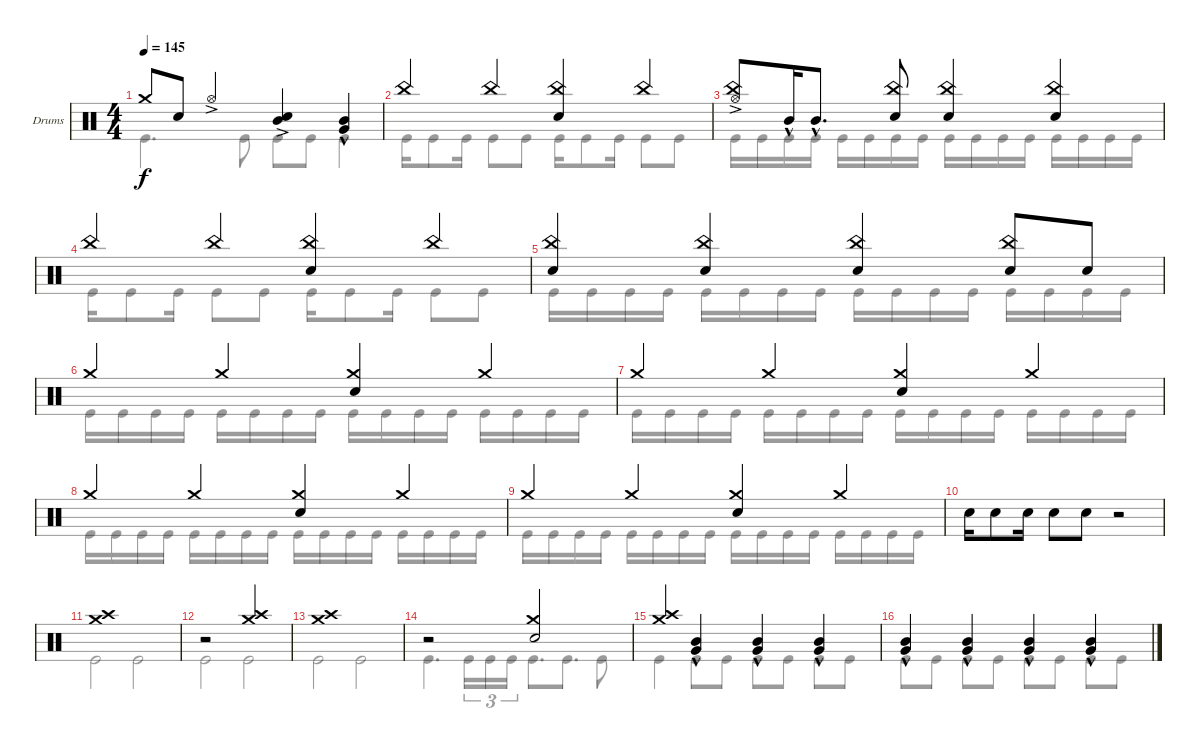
\defaultSystemsLayout 4
\bracketExtendMode groupsimilarinstruments
\firstSystemTrackNameOrientation horizontal
\otherSystemsTrackNameOrientation horizontal
\track ("Drumkit" "Drums") {instrument percussion}
\staff {score}
\articulation defaults
\voice
\ts (4 4)
\tempo 145
\clef neutral
\scale
1.02648
\ks c "Crash medium (hit)".8{dy f} "Snare (hit) 2".8 "Hi-Hat (open)"{ac}.4
("Snare (hit) 2" "Mid Tom (hit)"{ac}).4 ("Mid Tom (hit)"{hac} "Very Low Tom (hit)"{hac}).4 |
\scale
0.973518 "China (hit)".4 "China (hit)".4 ("China (hit)" "Snare (hit) 2").4 "China (hit)".4 |
\scale
1.02648 ("China (hit)" "Hi-Hat (open)"{ac}).8 "Mid Tom (hit)"{hac}.16 "Mid Tom (hit)"{hac}.8{d} ("Snare (hit) 2" "China (hit)").8 ("Snare (hit) 2" "China (hit)").4 ("China (hit)" "Snare (hit) 2").4 |
\scale
0.973518 "China (hit)".4 "China (hit)".4 ("China (hit)" "Snare (hit) 2").4 "China (hit)".4 |
\scale
1.02648 ("China (hit)" "Snare (hit) 2").4 ("China (hit)" "Snare (hit) 2").4 ("China (hit)" "Snare (hit) 2").4 ("China (hit)" "Snare (hit) 2").8 "Snare (hit) 2".8 |
\scale
0.973518 "Crash medium (hit)".4 "Crash medium (hit)".4 ("Crash medium (hit)" "Snare (hit) 2").4 "Crash medium (hit)".4 |
\scale
1.02648 "Crash medium (hit)".4 "Crash medium (hit)".4 ("Crash medium (hit)" "Snare (hit) 2").4 "Crash medium (hit)".4 |
\scale
0.973518 "Crash medium (hit)".4 "Crash medium (hit)".4 ("Crash medium (hit)" "Snare (hit) 2").4 "Crash medium (hit)".4 |
\scale
1.02648 "Crash medium (hit)".4 "Crash medium (hit)".4 ("Crash medium (hit)" "Snare (hit) 2").4 "Crash medium (hit)".4 |
\scale
0.973518 "Snare (hit) 2".16 "Snare (hit) 2".8 "Snare (hit) 2".16 "Snare (hit) 2".8 "Snare (hit) 2".8 r.2 |
\scale
1.02648 ("Crash medium (hit)" "Crash high (hit)").1 |
\scale
0.973518 r.2 ("Crash high (hit)" "Crash medium (hit)").2 |
\scale
1.02648 ("Crash medium (hit)" "Crash high (hit)").1 |
\scale
0.973518 r.2 ("Snare (hit) 2" "Crash medium (hit)").2 |
\scale
1.02648 ("Crash medium (hit)" "Crash high (hit)").4 ("Mid Tom (hit)"{hac} "Very Low Tom (hit)"{hac}).4 ("Very Low Tom (hit)"{hac} "Mid Tom (hit)"{hac}).4 ("Very Low Tom (hit)"{hac} "Mid Tom (hit)"{hac}).4 |
\scale
0.973518 ("Very Low Tom (hit)"{hac} "Mid Tom (hit)"{hac}).4 ("Mid Tom (hit)"{hac} "Very Low Tom (hit)"{hac}).4 ("Mid Tom (hit)"{hac} "Very Low Tom (hit)"{hac}).4 ("Mid Tom (hit)"{hac} "Very Low Tom (hit)"{hac}).4
\voice
\clef neutral
\ottava regular
\simile none
\scale
1.02648
\ks c "Kick (hit)".4{d dy f} "Kick (hit)".8 "Kick (hit)".8 "Kick (hit)".8 "Kick (hit)".4
|
\scale
0.973518 "Kick (hit)".16 "Kick (hit)".8 "Kick (hit)".16 "Kick (hit)".8 "Kick (hit)".8 "Kick (hit)".16 "Kick (hit)".8 "Kick (hit)".16 "Kick (hit)".8 "Kick (hit)".8 |
\scale
1.02648 "Kick (hit)".16 "Kick (hit)".16 "Kick (hit)".16 "Kick (hit)".16 "Kick (hit)".16 "Kick (hit)".16 "Kick (hit)".16 "Kick (hit)".16 "Kick (hit)".16 "Kick (hit)".16 "Kick (hit)".16 "Kick (hit)".16 "Kick (hit)".16 "Kick (hit)".16 "Kick (hit)".16 "Kick (hit)".16 |
\scale
0.973518 "Kick (hit)".16 "Kick (hit)".8 "Kick (hit)".16 "Kick (hit)".8 "Kick (hit)".8 "Kick (hit)".16 "Kick (hit)".8 "Kick (hit)".16 "Kick (hit)".8 "Kick (hit)".8 |
\scale
1.02648 "Kick (hit)".16 "Kick (hit)".16 "Kick (hit)".16 "Kick (hit)".16 "Kick (hit)".16 "Kick (hit)".16 "Kick (hit)".16 "Kick (hit)".16 "Kick (hit)".16 "Kick (hit)".16 "Kick (hit)".16 "Kick (hit)".16 "Kick (hit)".16 "Kick (hit)".16 "Kick (hit)".16 "Kick (hit)".16 |
\scale
0.973518 "Kick (hit)".16 "Kick (hit)".16 "Kick (hit)".16 "Kick (hit)".16 "Kick (hit)".16 "Kick (hit)".16 "Kick (hit)".16 "Kick (hit)".16 "Kick (hit)".16 "Kick (hit)".16 "Kick (hit)".16 "Kick (hit)".16 "Kick (hit)".16 "Kick (hit)".16 "Kick (hit)".16 "Kick (hit)".16 |
\scale
1.02648 "Kick (hit)".16 "Kick (hit)".16 "Kick (hit)".16 "Kick (hit)".16 "Kick (hit)".16 "Kick (hit)".16 "Kick (hit)".16 "Kick (hit)".16 "Kick (hit)".16 "Kick (hit)".16 "Kick (hit)".16 "Kick (hit)".16 "Kick (hit)".16 "Kick (hit)".16 "Kick (hit)".16 "Kick (hit)".16 |
\scale
0.973518 "Kick (hit)".16 "Kick (hit)".16 "Kick (hit)".16 "Kick (hit)".16 "Kick (hit)".16 "Kick (hit)".16 "Kick (hit)".16 "Kick (hit)".16 "Kick (hit)".16 "Kick (hit)".16 "Kick (hit)".16 "Kick (hit)".16 "Kick (hit)".16 "Kick (hit)".16 "Kick (hit)".16 "Kick (hit)".16 |
\scale
1.02648 "Kick (hit)".16 "Kick (hit)".16 "Kick (hit)".16 "Kick (hit)".16 "Kick (hit)".16 "Kick (hit)".16 "Kick (hit)".16 "Kick (hit)".16 "Kick (hit)".16 "Kick (hit)".16 "Kick (hit)".16 "Kick (hit)".16 "Kick (hit)".16 "Kick (hit)".16 "Kick (hit)".16 "Kick (hit)".16 |
\scale
0.973518 |
\scale
1.02648 "Kick (hit)".2 "Kick (hit)".2 |
\scale
0.973518 "Kick (hit)".2 "Kick (hit)".2 |
\scale
1.02648 "Kick (hit)".2 "Kick (hit)".2 |
\scale
0.973518 "Kick (hit)".4{d} "Kick (hit)".16{tu (3 2)} "Kick (hit)".16{tu (3 2)} "Kick (hit)".16{tu (3 2)} "Kick (hit)".8{d} "Kick (hit)".8{d} "Kick (hit)".8 |
\scale
1.02648 "Kick (hit)".4 "Kick (hit)".8 "Kick (hit)".8 "Kick (hit)".8 "Kick (hit)".8 "Kick (hit)".8 "Kick (hit)".8 |
\scale
0.973518 "Kick (hit)".8 "Kick (hit)".8 "Kick (hit)".8 "Kick (hit)".8 "Kick (hit)".8 "Kick (hit)".8 "Kick (hit)".8 "Kick (hit)".8
